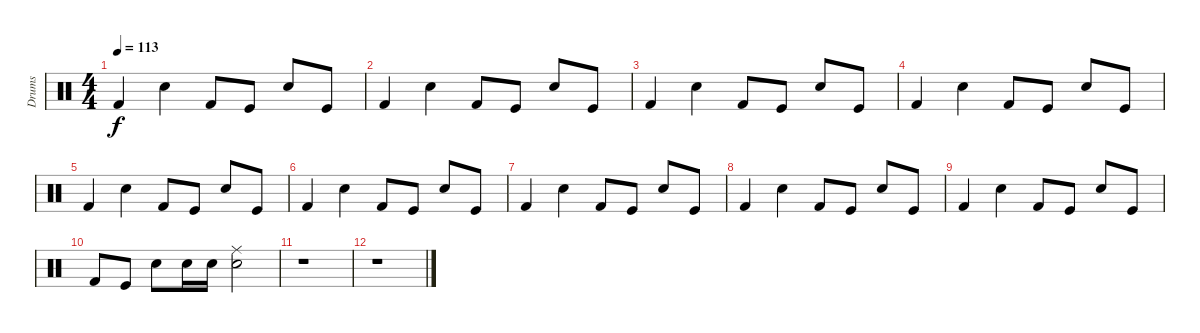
\track ("Drums" "Drums") {instrument percussion}
\staff {score}
\articulation defaults
\ts (4 4)
\tempo 113
\clef neutral
\ks c "Kick (hit) 2".4{dy f} "Electric Snare (hit)".4 "Kick (hit) 2".8 "Kick (hit)".8 "Snare (hit) 2".8 "Kick (hit)".8
|
"Kick (hit) 2".4 "Electric Snare (hit)".4 "Kick (hit) 2".8 "Kick (hit)".8 "Snare (hit) 2".8 "Kick (hit)".8 |
"Kick (hit) 2".4 "Electric Snare (hit)".4 "Kick (hit) 2".8 "Kick (hit)".8 "Snare (hit) 2".8 "Kick (hit)".8 |
"Kick (hit) 2".4 "Electric Snare (hit)".4 "Kick (hit) 2".8 "Kick (hit)".8 "Snare (hit) 2".8 "Kick (hit)".8 |
"Kick (hit) 2".4 "Electric Snare (hit)".4 "Kick (hit) 2".8 "Kick (hit)".8 "Snare (hit) 2".8 "Kick (hit)".8 |
"Kick (hit) 2".4 "Electric Snare (hit)".4 "Kick (hit) 2".8 "Kick (hit)".8 "Snare (hit) 2".8 "Kick (hit)".8 |
"Kick (hit) 2".4 "Electric Snare (hit)".4 "Kick (hit) 2".8 "Kick (hit)".8 "Snare (hit) 2".8 "Kick (hit)".8 |
"Kick (hit) 2".4 "Electric Snare (hit)".4 "Kick (hit) 2".8 "Kick (hit)".8 "Snare (hit) 2".8 "Kick (hit)".8 |
"Kick (hit) 2".4 "Electric Snare (hit)".4 "Kick (hit) 2".8 "Kick (hit)".8 "Snare (hit) 2".8 "Kick (hit)".8 |
"Kick (hit) 2".8 "Kick (hit)".8 "Electric Snare (hit)".8 "Snare (hit) 2".16 "Snare (hit) 2".16 ("Electric Snare (hit)" "Ride (middle)").2 |
r.1 |
r.1
